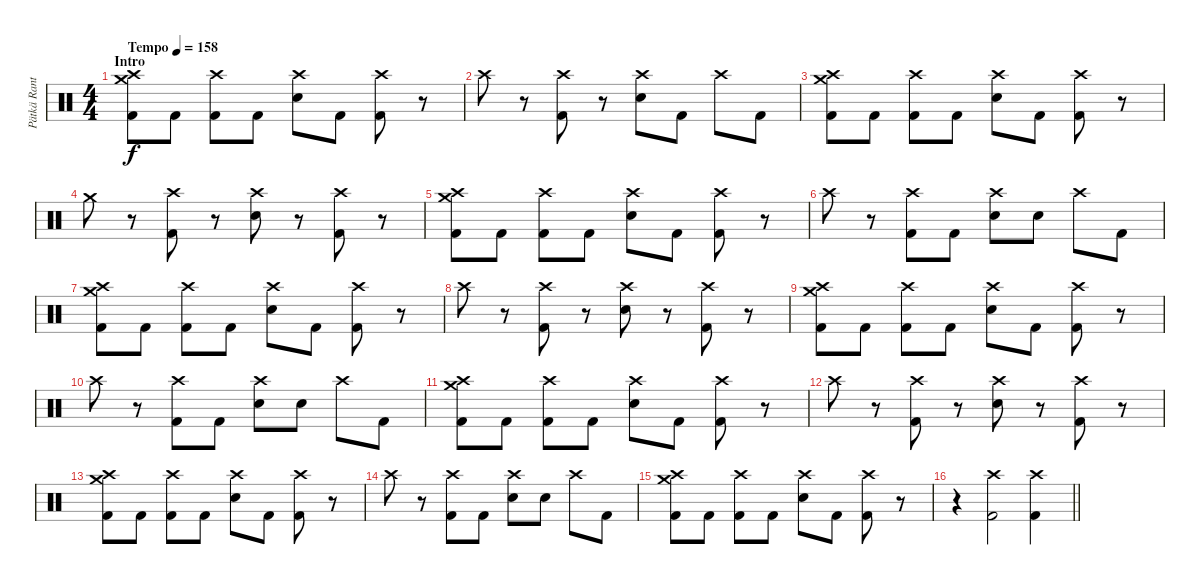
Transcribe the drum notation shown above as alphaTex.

\track ("Pätkä Rantala (Drums)" "Pätkä Rant") {instrument percussion}
\staff {score}
\articulation defaults
\ts (4 4)
\section ("" "Intro")
\tempo (158 "Tempo")
\clef neutral
\ks c
("Crash medium (hit)" "Crash high (hit)" "Kick (hit) 2").8{dy f} "Kick (hit) 2".8 ("Crash high (hit)" "Kick (hit) 2").8 "Kick (hit) 2".8 ("Crash high (hit)" "Snare (hit) 2").8 "Kick (hit) 2".8 ("Crash high (hit)" "Kick (hit) 2").8 r.8 |
"Crash high (hit)".8 r.8 ("Crash high (hit)" "Kick (hit) 2").8 r.8 ("Crash high (hit)" "Snare (hit) 2").8 "Kick (hit) 2".8 "Crash high (hit)".8 "Kick (hit) 2".8 |
("Crash medium (hit)" "Crash high (hit)" "Kick (hit) 2").8 "Kick (hit) 2".8 ("Crash high (hit)" "Kick (hit) 2").8 "Kick (hit) 2".8 ("Crash high (hit)" "Snare (hit) 2").8 "Kick (hit) 2".8 ("Crash high (hit)" "Kick (hit) 2").8 r.8 |
"Crash medium (hit)".8 r.8 ("Crash high (hit)" "Kick (hit) 2").8 r.8 ("Crash high (hit)" "Snare (hit) 2").8 r.8 ("Crash high (hit)" "Kick (hit) 2").8 r.8 |
("Crash medium (hit)" "Crash high (hit)" "Kick (hit) 2").8 "Kick (hit) 2".8 ("Crash high (hit)" "Kick (hit) 2").8 "Kick (hit) 2".8 ("Crash high (hit)" "Snare (hit) 2").8 "Kick (hit) 2".8 ("Crash high (hit)" "Kick (hit) 2").8 r.8 |
"Crash high (hit)".8 r.8 ("Crash high (hit)" "Kick (hit) 2").8 "Kick (hit) 2".8 ("Crash high (hit)" "Snare (hit) 2").8 "Snare (hit) 2".8 "Crash high (hit)".8 "Kick (hit) 2".8 |
("Crash medium (hit)" "Crash high (hit)" "Kick (hit) 2").8 "Kick (hit) 2".8 ("Crash high (hit)" "Kick (hit) 2").8 "Kick (hit) 2".8 ("Crash high (hit)" "Snare (hit) 2").8 "Kick (hit) 2".8 ("Crash high (hit)" "Kick (hit) 2").8 r.8 |
"Crash high (hit)".8 r.8 ("Crash high (hit)" "Kick (hit) 2").8 r.8 ("Crash high (hit)" "Snare (hit) 2").8 r.8 ("Crash high (hit)" "Kick (hit) 2").8 r.8 |
("Crash medium (hit)" "Crash high (hit)" "Kick (hit) 2").8 "Kick (hit) 2".8 ("Crash high (hit)" "Kick (hit) 2").8 "Kick (hit) 2".8 ("Crash high (hit)" "Snare (hit) 2").8 "Kick (hit) 2".8 ("Crash high (hit)" "Kick (hit) 2").8 r.8 |
"Crash high (hit)".8 r.8 ("Crash high (hit)" "Kick (hit) 2").8 "Kick (hit) 2".8 ("Crash high (hit)" "Snare (hit) 2").8 "Snare (hit) 2".8 "Crash high (hit)".8 "Kick (hit) 2".8 |
("Crash medium (hit)" "Crash high (hit)" "Kick (hit) 2").8 "Kick (hit) 2".8 ("Crash high (hit)" "Kick (hit) 2").8 "Kick (hit) 2".8 ("Crash high (hit)" "Snare (hit) 2").8 "Kick (hit) 2".8 ("Crash high (hit)" "Kick (hit) 2").8 r.8 |
"Crash high (hit)".8 r.8 ("Crash high (hit)" "Kick (hit) 2").8 r.8 ("Crash high (hit)" "Snare (hit) 2").8 r.8 ("Crash high (hit)" "Kick (hit) 2").8 r.8 |
("Crash medium (hit)" "Crash high (hit)" "Kick (hit) 2").8 "Kick (hit) 2".8 ("Crash high (hit)" "Kick (hit) 2").8 "Kick (hit) 2".8 ("Crash high (hit)" "Snare (hit) 2").8 "Kick (hit) 2".8 ("Crash high (hit)" "Kick (hit) 2").8 r.8 |
"Crash high (hit)".8 r.8 ("Crash high (hit)" "Kick (hit) 2").8 "Kick (hit) 2".8 ("Crash high (hit)" "Snare (hit) 2").8 "Snare (hit) 2".8 "Crash high (hit)".8 "Kick (hit) 2".8 |
("Crash medium (hit)" "Crash high (hit)" "Kick (hit) 2").8 "Kick (hit) 2".8 ("Crash high (hit)" "Kick (hit) 2").8 "Kick (hit) 2".8 ("Crash high (hit)" "Snare (hit) 2").8 "Kick (hit) 2".8 ("Crash high (hit)" "Kick (hit) 2").8 r.8 |
\barLineRight lightlight
r.4 ("Crash high (hit)" "Kick (hit) 2").2 ("Crash high (hit)" "Kick (hit) 2").4
